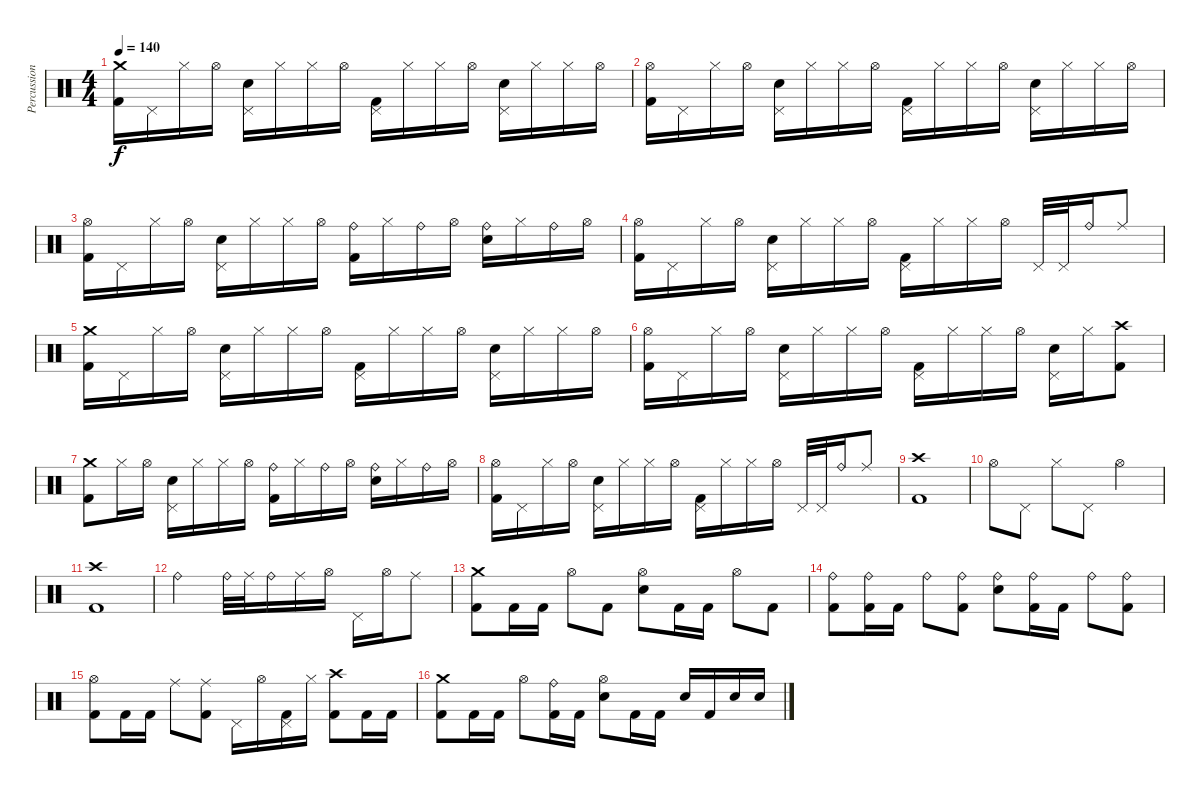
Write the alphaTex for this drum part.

\track ("Percussion" "Percussion") {instrument percussion}
\staff {score}
\articulation defaults
\ts (4 4)
\tempo 140
\clef neutral
\ks c
("Crash medium (hit)" "Kick (hit) 2").16{dy f} "Pedal Hi-Hat (hit)".16 "Hi-Hat (closed)".16 "Hi-Hat (open)".16 ("Pedal Hi-Hat (hit)" "Electric Snare (hit)").16 "Hi-Hat (closed)".16 "Hi-Hat (closed)".16 "Hi-Hat (open)".16 ("Pedal Hi-Hat (hit)" "Kick (hit) 2").16 "Hi-Hat (closed)".16 "Hi-Hat (closed)".16 "Hi-Hat (open)".16 ("Pedal Hi-Hat (hit)" "Electric Snare (hit)").16 "Hi-Hat (closed)".16 "Hi-Hat (closed)".16 "Hi-Hat (open)".16 |
("Hi-Hat (open)" "Kick (hit) 2").16 "Pedal Hi-Hat (hit)".16 "Hi-Hat (closed)".16 "Hi-Hat (open)".16 ("Pedal Hi-Hat (hit)" "Electric Snare (hit)").16 "Hi-Hat (closed)".16 "Hi-Hat (closed)".16 "Hi-Hat (open)".16 ("Pedal Hi-Hat (hit)" "Kick (hit) 2").16 "Hi-Hat (closed)".16 "Hi-Hat (closed)".16 "Hi-Hat (open)".16 ("Pedal Hi-Hat (hit)" "Electric Snare (hit)").16 "Hi-Hat (closed)".16 "Hi-Hat (closed)".16 "Hi-Hat (open)".16 |
("Hi-Hat (open)" "Kick (hit) 2").16 "Pedal Hi-Hat (hit)".16 "Hi-Hat (closed)".16 "Hi-Hat (open)".16 ("Pedal Hi-Hat (hit)" "Electric Snare (hit)").16 "Hi-Hat (closed)".16 "Hi-Hat (closed)".16 "Hi-Hat (open)".16 ("Ride (bell)" "Kick (hit) 2").16 "Hi-Hat (closed)".16 "Ride (bell)".16 "Hi-Hat (open)".16 ("Ride (bell)" "Electric Snare (hit)").16 "Hi-Hat (closed)".16 "Ride (bell)".16 "Hi-Hat (open)".16 |
("Hi-Hat (open)" "Kick (hit) 2").16 "Pedal Hi-Hat (hit)".16 "Hi-Hat (closed)".16 "Hi-Hat (open)".16 ("Pedal Hi-Hat (hit)" "Electric Snare (hit)").16 "Hi-Hat (closed)".16 "Hi-Hat (closed)".16 "Hi-Hat (open)".16 ("Pedal Hi-Hat (hit)" "Kick (hit) 2").16 "Hi-Hat (closed)".16 "Hi-Hat (closed)".16 "Hi-Hat (open)".16 "Pedal Hi-Hat (hit)".32 "Pedal Hi-Hat (hit)".32 "Ride (bell)".16 "Ride (middle)".8 |
("Crash medium (hit)" "Kick (hit) 2").16 "Pedal Hi-Hat (hit)".16 "Hi-Hat (closed)".16 "Hi-Hat (open)".16 ("Pedal Hi-Hat (hit)" "Electric Snare (hit)").16 "Hi-Hat (closed)".16 "Hi-Hat (closed)".16 "Hi-Hat (open)".16 ("Pedal Hi-Hat (hit)" "Kick (hit) 2").16 "Hi-Hat (closed)".16 "Hi-Hat (closed)".16 "Hi-Hat (open)".16 ("Pedal Hi-Hat (hit)" "Electric Snare (hit)").16 "Hi-Hat (closed)".16 "Hi-Hat (closed)".16 "Hi-Hat (open)".16 |
("Hi-Hat (open)" "Kick (hit) 2").16 "Pedal Hi-Hat (hit)".16 "Hi-Hat (closed)".16 "Hi-Hat (open)".16 ("Pedal Hi-Hat (hit)" "Electric Snare (hit)").16 "Hi-Hat (closed)".16 "Hi-Hat (closed)".16 "Hi-Hat (open)".16 ("Pedal Hi-Hat (hit)" "Kick (hit) 2").16 "Hi-Hat (closed)".16 "Hi-Hat (closed)".16 "Hi-Hat (open)".16 ("Pedal Hi-Hat (hit)" "Electric Snare (hit)").16 "Hi-Hat (closed)".16 ("Crash high (hit)" "Kick (hit) 2").8 |
("Crash medium (hit)" "Kick (hit) 2").8 "Hi-Hat (closed)".16 "Hi-Hat (open)".16 ("Pedal Hi-Hat (hit)" "Electric Snare (hit)").16 "Hi-Hat (closed)".16 "Hi-Hat (closed)".16 "Hi-Hat (open)".16 ("Ride (bell)" "Kick (hit) 2").16 "Hi-Hat (closed)".16 "Ride (bell)".16 "Hi-Hat (open)".16 ("Ride (bell)" "Electric Snare (hit)").16 "Hi-Hat (closed)".16 "Ride (bell)".16 "Hi-Hat (open)".16 |
("Hi-Hat (open)" "Kick (hit) 2").16 "Pedal Hi-Hat (hit)".16 "Hi-Hat (closed)".16 "Hi-Hat (open)".16 ("Pedal Hi-Hat (hit)" "Electric Snare (hit)").16 "Hi-Hat (closed)".16 "Hi-Hat (closed)".16 "Hi-Hat (open)".16 ("Pedal Hi-Hat (hit)" "Kick (hit) 2").16 "Hi-Hat (closed)".16 "Hi-Hat (closed)".16 "Hi-Hat (open)".16 "Pedal Hi-Hat (hit)".32 "Pedal Hi-Hat (hit)".32 "Ride (bell)".16 "Ride (middle)".8 |
("Crash high (hit)" "Kick (hit) 2").1 |
"Hi-Hat (open)".8 "Pedal Hi-Hat (hit)".8 "Hi-Hat (closed)".8 "Pedal Hi-Hat (hit)".8 "Hi-Hat (open)".2 |
("Crash high (hit)" "Kick (hit) 2").1 |
"Ride (bell)".2 "Ride (bell)".32 "Ride (middle)".32 "Ride (bell)".16 "Ride (middle)".16 "Hi-Hat (open)".16 "Pedal Hi-Hat (hit)".16 "Hi-Hat (open)".16 "Ride (middle)".8 |
("Crash medium (hit)" "Kick (hit) 2").8 "Kick (hit) 2".16 "Kick (hit) 2".16 "Hi-Hat (open)".8 "Kick (hit) 2".8 ("Hi-Hat (open)" "Electric Snare (hit)").8 "Kick (hit) 2".16 "Kick (hit) 2".16 "Hi-Hat (open)".8 "Kick (hit) 2".8 |
("Ride (bell)" "Kick (hit) 2").8 ("Ride (bell)" "Kick (hit) 2").16 "Kick (hit) 2".16 "Ride (bell)".8 ("Ride (bell)" "Kick (hit) 2").8 ("Ride (bell)" "Electric Snare (hit)").8 ("Ride (bell)" "Kick (hit) 2").16 "Kick (hit) 2".16 "Ride (bell)".8 ("Ride (bell)" "Kick (hit) 2").8 |
("Hi-Hat (open)" "Kick (hit) 2").8 "Kick (hit) 2".16 "Kick (hit) 2".16 "Ride (middle)".8 ("Ride (middle)" "Kick (hit) 2").8 "Pedal Hi-Hat (hit)".16 "Hi-Hat (open)".16 ("Pedal Hi-Hat (hit)" "Kick (hit) 2").16 "Hi-Hat (closed)".16 ("Crash high (hit)" "Kick (hit) 2").8 "Kick (hit) 2".16 "Kick (hit) 2".16 |
("Crash medium (hit)" "Kick (hit) 2").8 "Kick (hit) 2".16 "Kick (hit) 2".16 "Hi-Hat (open)".8 ("Ride (bell)" "Kick (hit) 2").16 "Kick (hit) 2".16 ("Hi-Hat (open)" "Electric Snare (hit)").8 "Kick (hit) 2".16 "Kick (hit) 2".16 "Electric Snare (hit)".16 "Kick (hit) 2".16 "Electric Snare (hit)".16 "Electric Snare (hit)".16
